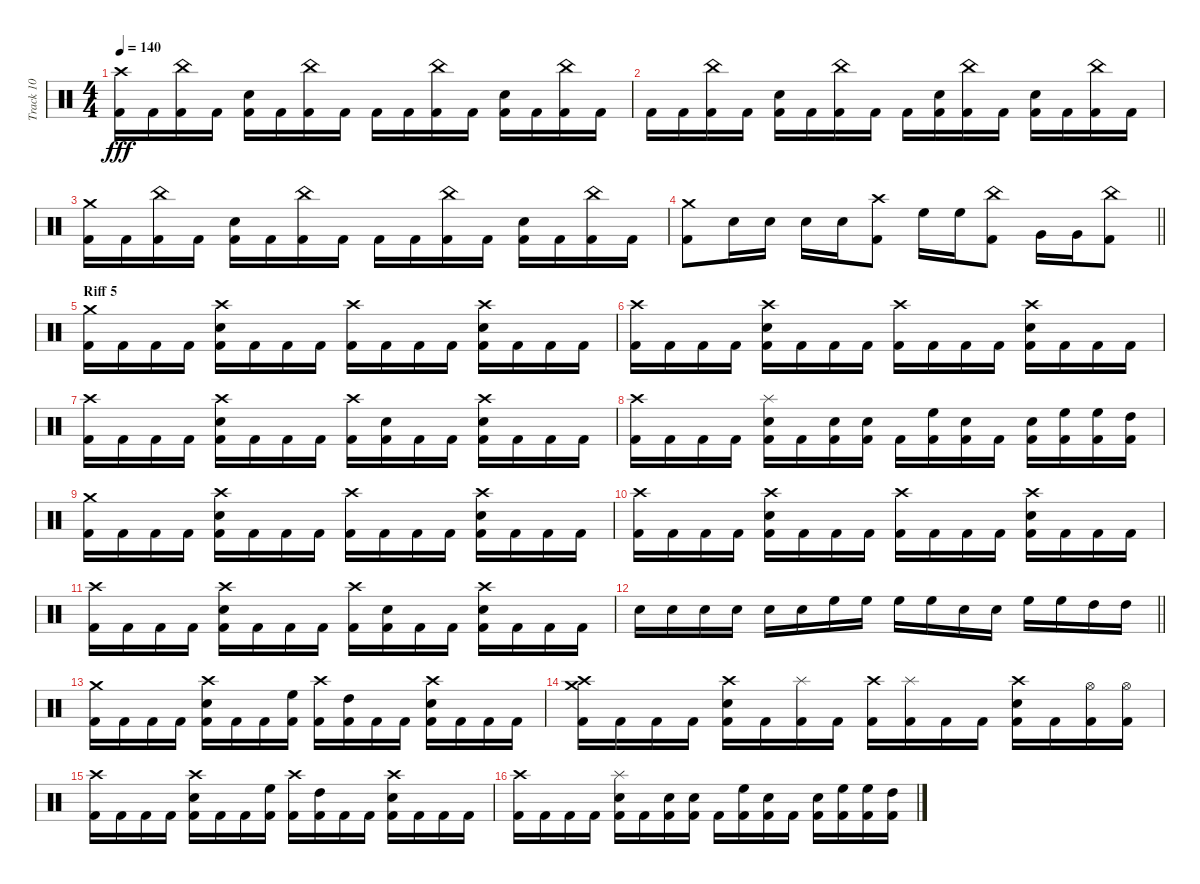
\track ("Track 10" "Track 10") {instrument percussion}
\staff {score}
\articulation defaults
\ts (4 4)
\tempo 140
\clef neutral
\ks c
("Crash high (hit)" "Kick (hit) 2").16{dy fff} "Kick (hit) 2".16 ("China (hit)" "Kick (hit) 2").16 "Kick (hit) 2".16 ("Kick (hit) 2" "Snare (hit) 2").16 "Kick (hit) 2".16 ("Kick (hit) 2" "China (hit)").16 "Kick (hit) 2".16 "Kick (hit) 2".16 "Kick (hit) 2".16 ("Kick (hit) 2" "China (hit)").16 "Kick (hit) 2".16 ("Kick (hit) 2" "Snare (hit) 2").16 "Kick (hit) 2".16 ("China (hit)" "Kick (hit) 2").16 "Kick (hit) 2".16 |
"Kick (hit) 2".16 "Kick (hit) 2".16 ("China (hit)" "Kick (hit) 2").16 "Kick (hit) 2".16 ("Kick (hit) 2" "Snare (hit) 2").16 "Kick (hit) 2".16 ("Kick (hit) 2" "China (hit)").16 "Kick (hit) 2".16 "Kick (hit) 2".16 ("Snare (hit) 2" "Kick (hit) 2").16 ("Kick (hit) 2" "China (hit)").16 "Kick (hit) 2".16 ("Kick (hit) 2" "Snare (hit) 2").16 "Kick (hit) 2".16 ("China (hit)" "Kick (hit) 2").16 "Kick (hit) 2".16 |
("Kick (hit) 2" "Crash medium (hit)").16 "Kick (hit) 2".16 ("China (hit)" "Kick (hit) 2").16 "Kick (hit) 2".16 ("Snare (hit) 2" "Kick (hit) 2").16 "Kick (hit) 2".16 ("Kick (hit) 2" "China (hit)").16 "Kick (hit) 2".16 "Kick (hit) 2".16 "Kick (hit) 2".16 ("Kick (hit) 2" "China (hit)").16 "Kick (hit) 2".16 ("Snare (hit) 2" "Kick (hit) 2").16 "Kick (hit) 2".16 ("China (hit)" "Kick (hit) 2").16 "Kick (hit) 2".16 |
\barLineRight lightlight
("Crash medium (hit)" "Kick (hit) 2").8 "Snare (hit) 2".16 "Snare (hit) 2".16 "Snare (hit) 2".16 "Snare (hit) 2".16 ("Crash high (hit)" "Kick (hit) 2").8 "High Floor Tom (hit)".16 "High Floor Tom (hit)".16 ("Kick (hit) 2" "China (hit)").8 "Very Low Tom (hit)".16 "Very Low Tom (hit)".16 ("China (hit)" "Kick (hit) 2").8 |
\section ("" "Riff 5")
("Crash medium (hit)" "Kick (hit) 2").16 "Kick (hit) 2".16 "Kick (hit) 2".16 "Kick (hit) 2".16 ("Snare (hit) 2" "Crash high (hit)" "Kick (hit) 2").16 "Kick (hit) 2".16 "Kick (hit) 2".16 "Kick (hit) 2".16 ("Kick (hit) 2" "Crash high (hit)").16 "Kick (hit) 2".16 "Kick (hit) 2".16 "Kick (hit) 2".16 ("Kick (hit) 2" "Crash high (hit)" "Snare (hit) 2").16 "Kick (hit) 2".16 "Kick (hit) 2".16 "Kick (hit) 2".16 |
("Kick (hit) 2" "Crash high (hit)").16 "Kick (hit) 2".16 "Kick (hit) 2".16 "Kick (hit) 2".16 ("Snare (hit) 2" "Crash high (hit)" "Kick (hit) 2").16 "Kick (hit) 2".16 "Kick (hit) 2".16 "Kick (hit) 2".16 ("Crash high (hit)" "Kick (hit) 2").16 "Kick (hit) 2".16 "Kick (hit) 2".16 "Kick (hit) 2".16 ("Kick (hit) 2" "Crash high (hit)" "Snare (hit) 2").16 "Kick (hit) 2".16 "Kick (hit) 2".16 "Kick (hit) 2".16 |
("Kick (hit) 2" "Crash high (hit)").16 "Kick (hit) 2".16 "Kick (hit) 2".16 "Kick (hit) 2".16 ("Crash high (hit)" "Snare (hit) 2" "Kick (hit) 2").16 "Kick (hit) 2".16 "Kick (hit) 2".16 "Kick (hit) 2".16 ("Kick (hit) 2" "Crash high (hit)").16 ("Kick (hit) 2" "Snare (hit) 2").16 "Kick (hit) 2".16 "Kick (hit) 2".16 ("Snare (hit) 2" "Kick (hit) 2" "Crash high (hit)").16 "Kick (hit) 2".16 "Kick (hit) 2".16 "Kick (hit) 2".16 |
("Kick (hit) 2" "Crash high (hit)").16 "Kick (hit) 2".16 "Kick (hit) 2".16 "Kick (hit) 2".16 ("Snare (hit) 2" "Splash (hit)" "Kick (hit) 2").16 "Kick (hit) 2".16 ("Snare (hit) 2" "Kick (hit) 2").16 ("Kick (hit) 2" "Snare (hit) 2").16 "Kick (hit) 2".16 ("Kick (hit) 2" "High Floor Tom (hit)").16 ("Snare (hit) 2" "Kick (hit) 2").16 "Kick (hit) 2".16 ("Kick (hit) 2" "Snare (hit) 2").16 ("High Floor Tom (hit)" "Kick (hit) 2").16 ("Kick (hit) 2" "High Floor Tom (hit)").16 ("High Tom (hit)" "Kick (hit) 2").16 |
("Kick (hit) 2" "Crash medium (hit)").16 "Kick (hit) 2".16 "Kick (hit) 2".16 "Kick (hit) 2".16 ("Kick (hit) 2" "Crash high (hit)" "Snare (hit) 2").16 "Kick (hit) 2".16 "Kick (hit) 2".16 "Kick (hit) 2".16 ("Crash high (hit)" "Kick (hit) 2").16 "Kick (hit) 2".16 "Kick (hit) 2".16 "Kick (hit) 2".16 ("Snare (hit) 2" "Kick (hit) 2" "Crash high (hit)").16 "Kick (hit) 2".16 "Kick (hit) 2".16 "Kick (hit) 2".16 |
("Kick (hit) 2" "Crash high (hit)").16 "Kick (hit) 2".16 "Kick (hit) 2".16 "Kick (hit) 2".16 ("Snare (hit) 2" "Crash high (hit)" "Kick (hit) 2").16 "Kick (hit) 2".16 "Kick (hit) 2".16 "Kick (hit) 2".16 ("Kick (hit) 2" "Crash high (hit)").16 "Kick (hit) 2".16 "Kick (hit) 2".16 "Kick (hit) 2".16 ("Crash high (hit)" "Snare (hit) 2" "Kick (hit) 2").16 "Kick (hit) 2".16 "Kick (hit) 2".16 "Kick (hit) 2".16 |
("Kick (hit) 2" "Crash high (hit)").16 "Kick (hit) 2".16 "Kick (hit) 2".16 "Kick (hit) 2".16 ("Crash high (hit)" "Snare (hit) 2" "Kick (hit) 2").16 "Kick (hit) 2".16 "Kick (hit) 2".16 "Kick (hit) 2".16 ("Kick (hit) 2" "Crash high (hit)").16 ("Kick (hit) 2" "Snare (hit) 2").16 "Kick (hit) 2".16 "Kick (hit) 2".16 ("Kick (hit) 2" "Snare (hit) 2" "Crash high (hit)").16 "Kick (hit) 2".16 "Kick (hit) 2".16 "Kick (hit) 2".16 |
\barLineRight lightlight "Snare (hit) 2".16 "Snare (hit) 2".16 "Snare (hit) 2".16 "Snare (hit) 2".16 "Snare (hit) 2".16 "Snare (hit) 2".16 "High Floor Tom (hit)".16 "High Floor Tom (hit)".16 "High Floor Tom (hit)".16 "High Floor Tom (hit)".16 "Snare (hit) 2".16 "Snare (hit) 2".16 "High Floor Tom (hit)".16 "High Floor Tom (hit)".16 "High Tom (hit)".16 "High Tom (hit)".16
|
("Crash medium (hit)" "Kick (hit) 2").16 "Kick (hit) 2".16 "Kick (hit) 2".16 "Kick (hit) 2".16 ("Crash high (hit)" "Snare (hit) 2" "Kick (hit) 2").16 "Kick (hit) 2".16 "Kick (hit) 2".16 ("Kick (hit) 2" "High Floor Tom (hit)").16 ("Crash high (hit)" "Kick (hit) 2").16 ("Kick (hit) 2" "High Tom (hit)").16 "Kick (hit) 2".16 "Kick (hit) 2".16 ("Kick (hit) 2" "Snare (hit) 2" "Crash high (hit)").16 "Kick (hit) 2".16 "Kick (hit) 2".16 "Kick (hit) 2".16 |
("Crash medium (hit)" "Crash high (hit)" "Kick (hit) 2").16 "Kick (hit) 2".16 "Kick (hit) 2".16 "Kick (hit) 2".16 ("Crash high (hit)" "Kick (hit) 2" "Snare (hit) 2").16 "Kick (hit) 2".16 ("Kick (hit) 2" "Splash (hit)").16 "Kick (hit) 2".16 ("Crash high (hit)" "Kick (hit) 2").16 ("Kick (hit) 2" "Splash (hit)").16 "Kick (hit) 2".16 "Kick (hit) 2".16 ("Snare (hit) 2" "Crash high (hit)" "Kick (hit) 2").16 "Kick (hit) 2".16 ("Hi-Hat (open)" "Kick (hit) 2").16 ("Kick (hit) 2" "Hi-Hat (open)").16 |
("Kick (hit) 2" "Crash high (hit)").16 "Kick (hit) 2".16 "Kick (hit) 2".16 "Kick (hit) 2".16 ("Snare (hit) 2" "Crash high (hit)" "Kick (hit) 2").16 "Kick (hit) 2".16 "Kick (hit) 2".16 ("High Floor Tom (hit)" "Kick (hit) 2").16 ("Crash high (hit)" "Kick (hit) 2").16 ("High Tom (hit)" "Kick (hit) 2").16 "Kick (hit) 2".16 "Kick (hit) 2".16 ("Crash high (hit)" "Kick (hit) 2" "Snare (hit) 2").16 "Kick (hit) 2".16 "Kick (hit) 2".16 "Kick (hit) 2".16 |
("Crash high (hit)" "Kick (hit) 2").16 "Kick (hit) 2".16 "Kick (hit) 2".16 "Kick (hit) 2".16 ("Snare (hit) 2" "Splash (hit)" "Kick (hit) 2").16 "Kick (hit) 2".16 ("Kick (hit) 2" "Snare (hit) 2").16 ("Snare (hit) 2" "Kick (hit) 2").16 "Kick (hit) 2".16 ("Kick (hit) 2" "High Floor Tom (hit)").16 ("Snare (hit) 2" "Kick (hit) 2").16 "Kick (hit) 2".16 ("Snare (hit) 2" "Kick (hit) 2").16 ("Kick (hit) 2" "High Floor Tom (hit)").16 ("High Floor Tom (hit)" "Kick (hit) 2").16 ("Kick (hit) 2" "High Tom (hit)").16
